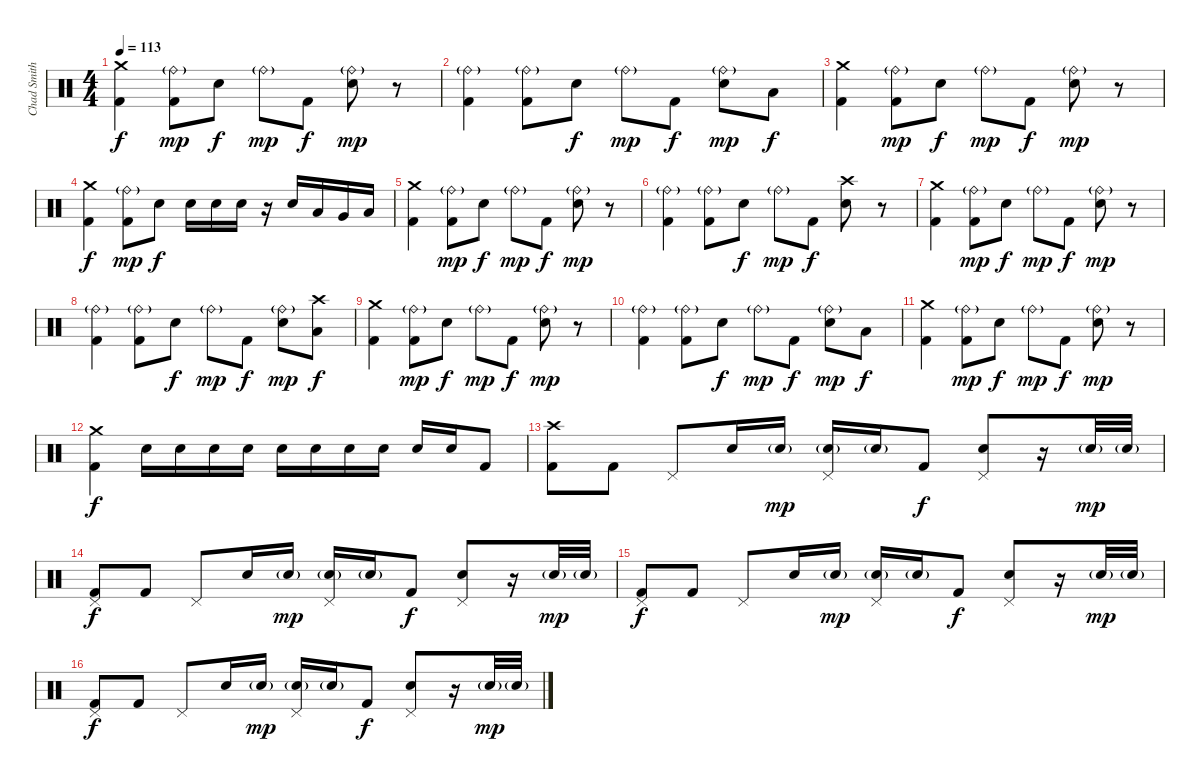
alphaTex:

\track ("Chad Smith" "Chad Smith") {instrument percussion}
\staff {score}
\articulation defaults
\ts (4 4)
\tempo 113
\clef neutral
\ks c
("Crash medium (hit)" "Kick (hit) 2").4{dy f} ("Ride (bell)"{g} "Kick (hit) 2").8{dy mp} "Snare (hit) 2".8{dy f} "Ride (bell)"{g}.8{dy mp} "Kick (hit) 2".8{dy f} ("Ride (bell)"{g} "Snare (hit) 2").8{dy mp} r.8 |
("Ride (bell)"{g} "Kick (hit) 2").4 ("Ride (bell)"{g} "Kick (hit) 2").8 "Snare (hit) 2".8{dy f} "Ride (bell)"{g}.8{dy mp} "Kick (hit) 2".8{dy f} ("Ride (bell)"{g} "Snare (hit) 2").8{dy mp} "Low Floor Tom (hit)".8{dy f} |
("Crash medium (hit)" "Kick (hit) 2").4 ("Ride (bell)"{g} "Kick (hit) 2").8{dy mp} "Snare (hit) 2".8{dy f} "Ride (bell)"{g}.8{dy mp} "Kick (hit) 2".8{dy f} ("Ride (bell)"{g} "Snare (hit) 2").8{dy mp} r.8 |
("Crash medium (hit)" "Kick (hit) 2").4{dy f} ("Ride (bell)"{g} "Kick (hit) 2").8{dy mp} "Snare (hit) 2".8{dy f} "Snare (hit) 2".16 "Snare (hit) 2".16 "Snare (hit) 2".16 r.16 "Snare (hit) 2".16 "Low Tom (hit)".16 "Very Low Tom (hit)".16 "Low Floor Tom (hit)".16 |
("Crash medium (hit)" "Kick (hit) 2").4 ("Ride (bell)"{g} "Kick (hit) 2").8{dy mp} "Snare (hit) 2".8{dy f} "Ride (bell)"{g}.8{dy mp} "Kick (hit) 2".8{dy f} ("Ride (bell)"{g} "Snare (hit) 2").8{dy mp} r.8 |
("Ride (bell)"{g} "Kick (hit) 2").4 ("Ride (bell)"{g} "Kick (hit) 2").8 "Snare (hit) 2".8{dy f} "Ride (bell)"{g}.8{dy mp} "Kick (hit) 2".8{dy f} ("Crash high (hit)" "Snare (hit) 2").8 r.8 |
("Crash medium (hit)" "Kick (hit) 2").4 ("Ride (bell)"{g} "Kick (hit) 2").8{dy mp} "Snare (hit) 2".8{dy f} "Ride (bell)"{g}.8{dy mp} "Kick (hit) 2".8{dy f} ("Ride (bell)"{g} "Snare (hit) 2").8{dy mp} r.8 |
("Ride (bell)"{g} "Kick (hit) 2").4 ("Ride (bell)"{g} "Kick (hit) 2").8 "Snare (hit) 2".8{dy f} "Ride (bell)"{g}.8{dy mp} "Kick (hit) 2".8{dy f} ("Ride (bell)"{g} "Snare (hit) 2").8{dy mp} ("Crash high (hit)" "Low Floor Tom (hit)").8{dy f} |
("Crash medium (hit)" "Kick (hit) 2").4 ("Ride (bell)"{g} "Kick (hit) 2").8{dy mp} "Snare (hit) 2".8{dy f} "Ride (bell)"{g}.8{dy mp} "Kick (hit) 2".8{dy f} ("Ride (bell)"{g} "Snare (hit) 2").8{dy mp} r.8 |
("Ride (bell)"{g} "Kick (hit) 2").4 ("Ride (bell)"{g} "Kick (hit) 2").8 "Snare (hit) 2".8{dy f} "Ride (bell)"{g}.8{dy mp} "Kick (hit) 2".8{dy f} ("Ride (bell)"{g} "Snare (hit) 2").8{dy mp} "Low Floor Tom (hit)".8{dy f} |
("Crash medium (hit)" "Kick (hit) 2").4 ("Ride (bell)"{g} "Kick (hit) 2").8{dy mp} "Snare (hit) 2".8{dy f} "Ride (bell)"{g}.8{dy mp} "Kick (hit) 2".8{dy f} ("Ride (bell)"{g} "Snare (hit) 2").8{dy mp} r.8 |
("Crash medium (hit)" "Kick (hit) 2").4{dy f} "Electric Snare (hit)".16 "Electric Snare (hit)".16 "Electric Snare (hit)".16 "Electric Snare (hit)".16 "Electric Snare (hit)".16 "Electric Snare (hit)".16 "Electric Snare (hit)".16 "Electric Snare (hit)".16 "Electric Snare (hit)".16 "Electric Snare (hit)".16 "Kick (hit) 2".8 |
("Crash high (hit)" "Kick (hit) 2").8 "Kick (hit) 2".8 "Pedal Hi-Hat (hit)".8 "Snare (hit) 2".16 "Snare (hit) 2"{g}.16{dy mp} ("Pedal Hi-Hat (hit)" "Snare (hit) 2"{g}).16 "Snare (hit) 2"{g}.16 "Kick (hit) 2".8{dy f} ("Pedal Hi-Hat (hit)" "Snare (hit) 2").8 r.16 "Snare (hit) 2"{g}.32{dy mp} "Snare (hit) 2"{g}.32 |
("Pedal Hi-Hat (hit)" "Kick (hit) 2").8{dy f} "Kick (hit) 2".8 "Pedal Hi-Hat (hit)".8 "Snare (hit) 2".16 "Snare (hit) 2"{g}.16{dy mp} ("Pedal Hi-Hat (hit)" "Snare (hit) 2"{g}).16 "Snare (hit) 2"{g}.16 "Kick (hit) 2".8{dy f} ("Pedal Hi-Hat (hit)" "Snare (hit) 2").8 r.16 "Snare (hit) 2"{g}.32{dy mp} "Snare (hit) 2"{g}.32 |
("Pedal Hi-Hat (hit)" "Kick (hit) 2").8{dy f} "Kick (hit) 2".8 "Pedal Hi-Hat (hit)".8 "Snare (hit) 2".16 "Snare (hit) 2"{g}.16{dy mp} ("Pedal Hi-Hat (hit)" "Snare (hit) 2"{g}).16 "Snare (hit) 2"{g}.16 "Kick (hit) 2".8{dy f} ("Pedal Hi-Hat (hit)" "Snare (hit) 2").8 r.16 "Snare (hit) 2"{g}.32{dy mp} "Snare (hit) 2"{g}.32 |
("Pedal Hi-Hat (hit)" "Kick (hit) 2").8{dy f} "Kick (hit) 2".8 "Pedal Hi-Hat (hit)".8 "Snare (hit) 2".16 "Snare (hit) 2"{g}.16{dy mp} ("Pedal Hi-Hat (hit)" "Snare (hit) 2"{g}).16 "Snare (hit) 2"{g}.16 "Kick (hit) 2".8{dy f} ("Pedal Hi-Hat (hit)" "Snare (hit) 2").8 r.16 "Snare (hit) 2"{g}.32{dy mp} "Snare (hit) 2"{g}.32
